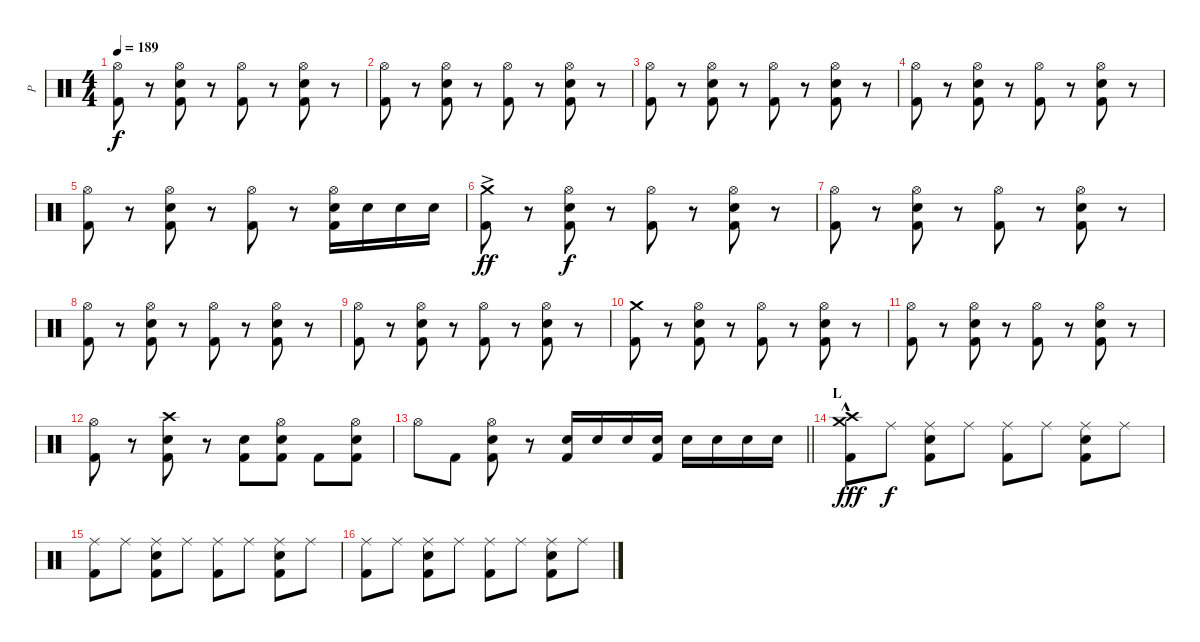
\track ("P" "P") {instrument percussion}
\staff {score}
\articulation defaults
\ts (4 4)
\tempo 189
\clef neutral
\ks c
("Hi-Hat (open)" "Kick (hit) 2").8{dy f} r.8 ("Hi-Hat (open)" "Electric Snare (hit)" "Kick (hit) 2").8 r.8 ("Hi-Hat (open)" "Kick (hit) 2").8 r.8 ("Hi-Hat (open)" "Electric Snare (hit)" "Kick (hit) 2").8 r.8 |
("Hi-Hat (open)" "Kick (hit) 2").8 r.8 ("Hi-Hat (open)" "Electric Snare (hit)" "Kick (hit) 2").8 r.8 ("Hi-Hat (open)" "Kick (hit) 2").8 r.8 ("Hi-Hat (open)" "Electric Snare (hit)" "Kick (hit) 2").8 r.8 |
("Hi-Hat (open)" "Kick (hit) 2").8 r.8 ("Hi-Hat (open)" "Electric Snare (hit)" "Kick (hit) 2").8 r.8 ("Hi-Hat (open)" "Kick (hit) 2").8 r.8 ("Hi-Hat (open)" "Electric Snare (hit)" "Kick (hit) 2").8 r.8 |
("Hi-Hat (open)" "Kick (hit) 2").8 r.8 ("Hi-Hat (open)" "Electric Snare (hit)" "Kick (hit) 2").8 r.8 ("Hi-Hat (open)" "Kick (hit) 2").8 r.8 ("Hi-Hat (open)" "Electric Snare (hit)" "Kick (hit) 2").8 r.8 |
("Hi-Hat (open)" "Kick (hit) 2").8 r.8 ("Hi-Hat (open)" "Electric Snare (hit)" "Kick (hit) 2").8 r.8 ("Hi-Hat (open)" "Kick (hit) 2").8 r.8 ("Hi-Hat (open)" "Electric Snare (hit)" "Kick (hit) 2").16 "Electric Snare (hit)".16 "Electric Snare (hit)".16 "Electric Snare (hit)".16 |
("Crash medium (hit)"{ac} "Kick (hit) 2").8{dy ff} r.8 ("Hi-Hat (open)" "Electric Snare (hit)" "Kick (hit) 2").8{dy f} r.8 ("Hi-Hat (open)" "Kick (hit) 2").8 r.8 ("Hi-Hat (open)" "Electric Snare (hit)" "Kick (hit) 2").8 r.8 |
("Hi-Hat (open)" "Kick (hit) 2").8 r.8 ("Hi-Hat (open)" "Electric Snare (hit)" "Kick (hit) 2").8 r.8 ("Hi-Hat (open)" "Kick (hit) 2").8 r.8 ("Hi-Hat (open)" "Electric Snare (hit)" "Kick (hit) 2").8 r.8 |
("Hi-Hat (open)" "Kick (hit) 2").8 r.8 ("Hi-Hat (open)" "Electric Snare (hit)" "Kick (hit) 2").8 r.8 ("Hi-Hat (open)" "Kick (hit) 2").8 r.8 ("Hi-Hat (open)" "Electric Snare (hit)" "Kick (hit) 2").8 r.8 |
("Hi-Hat (open)" "Kick (hit) 2").8 r.8 ("Hi-Hat (open)" "Electric Snare (hit)" "Kick (hit) 2").8 r.8 ("Hi-Hat (open)" "Kick (hit) 2").8 r.8 ("Hi-Hat (open)" "Electric Snare (hit)" "Kick (hit) 2").8 r.8 |
("Crash medium (hit)" "Kick (hit) 2").8 r.8 ("Hi-Hat (open)" "Electric Snare (hit)" "Kick (hit) 2").8 r.8 ("Hi-Hat (open)" "Kick (hit) 2").8 r.8 ("Hi-Hat (open)" "Electric Snare (hit)" "Kick (hit) 2").8 r.8 |
("Hi-Hat (open)" "Kick (hit) 2").8 r.8 ("Hi-Hat (open)" "Electric Snare (hit)" "Kick (hit) 2").8 r.8 ("Hi-Hat (open)" "Kick (hit) 2").8 r.8 ("Hi-Hat (open)" "Electric Snare (hit)" "Kick (hit) 2").8 r.8 |
("Hi-Hat (open)" "Kick (hit) 2").8 r.8 ("Crash high (hit)" "Electric Snare (hit)" "Kick (hit) 2").8 r.8 ("Electric Snare (hit)" "Kick (hit) 2").8 ("Hi-Hat (open)" "Electric Snare (hit)" "Kick (hit) 2").8 "Kick (hit) 2".8 ("Hi-Hat (open)" "Electric Snare (hit)" "Kick (hit) 2").8 |
\barLineRight lightlight "Hi-Hat (open)".8 "Kick (hit) 2".8
("Hi-Hat (open)" "Electric Snare (hit)" "Kick (hit) 2").8 r.8 ("Electric Snare (hit)" "Kick (hit) 2").16 "Electric Snare (hit)".16 "Electric Snare (hit)".16 ("Electric Snare (hit)" "Kick (hit) 2").16 "Electric Snare (hit)".16 "Electric Snare (hit)".16 "Electric Snare (hit)".16 "Electric Snare (hit)".16 |
\section ("" "L")
("Crash medium (hit)"{hac} "Crash high (hit)" "Kick (hit) 2").8{dy fff} "Ride (middle)".8{dy f} ("Ride (middle)" "Electric Snare (hit)" "Kick (hit) 2").8 "Ride (middle)".8 ("Ride (middle)" "Kick (hit) 2").8 "Ride (middle)".8 ("Ride (middle)" "Electric Snare (hit)" "Kick (hit) 2").8 "Ride (middle)".8 |
("Ride (middle)" "Kick (hit) 2").8 "Ride (middle)".8 ("Ride (middle)" "Electric Snare (hit)" "Kick (hit) 2").8 "Ride (middle)".8 ("Ride (middle)" "Kick (hit) 2").8 "Ride (middle)".8 ("Ride (middle)" "Electric Snare (hit)" "Kick (hit) 2").8 "Ride (middle)".8 |
("Ride (middle)" "Kick (hit) 2").8 "Ride (middle)".8 ("Ride (middle)" "Electric Snare (hit)" "Kick (hit) 2").8 "Ride (middle)".8 ("Ride (middle)" "Kick (hit) 2").8 "Ride (middle)".8 ("Ride (middle)" "Electric Snare (hit)" "Kick (hit) 2").8 "Ride (middle)".8
